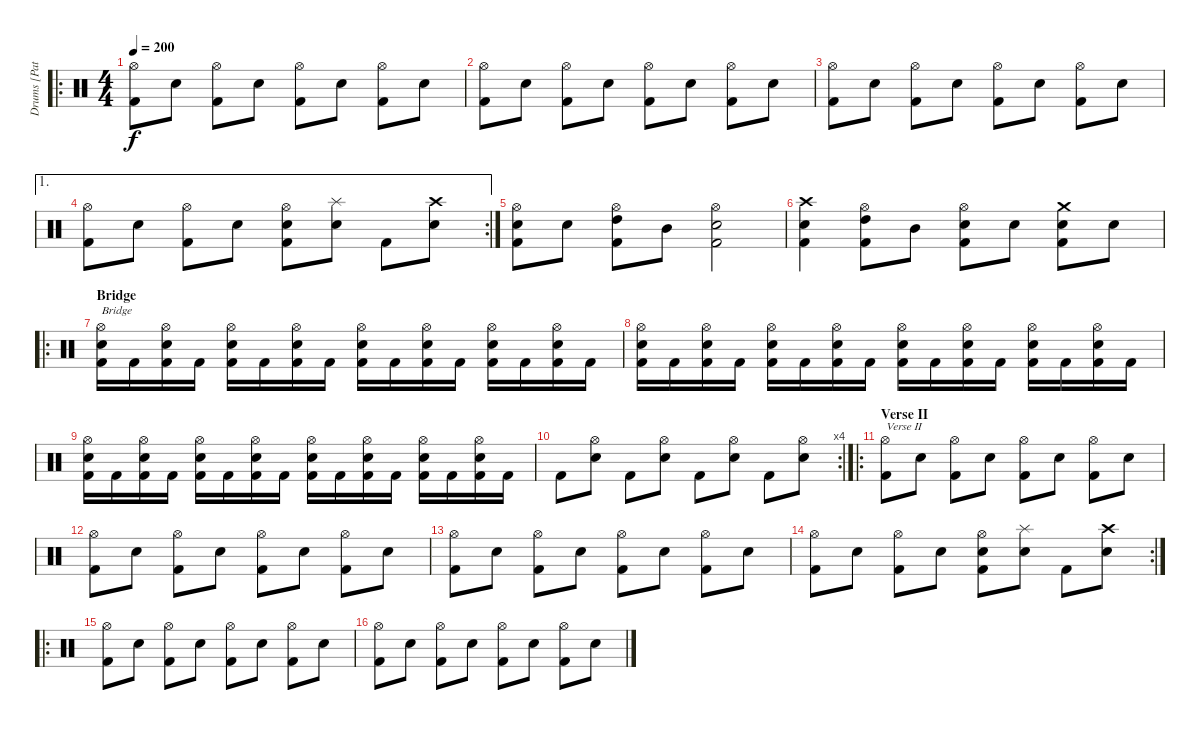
\track ("Drums [Patrick Robert]" "Drums [Pat") {instrument percussion}
\staff {score}
\articulation defaults
\ro
\ts (4 4)
\tempo 200
\clef neutral
\ks c
("Hi-Hat (open)" "Kick (hit) 2").8{dy f} "Electric Snare (hit)".8 ("Hi-Hat (open)" "Kick (hit) 2").8 "Electric Snare (hit)".8 ("Hi-Hat (open)" "Kick (hit) 2").8 "Electric Snare (hit)".8 ("Hi-Hat (open)" "Kick (hit) 2").8 "Electric Snare (hit)".8 |
("Hi-Hat (open)" "Kick (hit) 2").8 "Electric Snare (hit)".8 ("Hi-Hat (open)" "Kick (hit) 2").8 "Electric Snare (hit)".8 ("Hi-Hat (open)" "Kick (hit) 2").8 "Electric Snare (hit)".8 ("Hi-Hat (open)" "Kick (hit) 2").8 "Electric Snare (hit)".8 |
("Hi-Hat (open)" "Kick (hit) 2").8 "Electric Snare (hit)".8 ("Hi-Hat (open)" "Kick (hit) 2").8 "Electric Snare (hit)".8 ("Hi-Hat (open)" "Kick (hit) 2").8 "Electric Snare (hit)".8 ("Hi-Hat (open)" "Kick (hit) 2").8 "Electric Snare (hit)".8 |
\ae 1
\rc 2
("Hi-Hat (open)" "Kick (hit) 2").8 "Electric Snare (hit)".8 ("Hi-Hat (open)" "Kick (hit) 2").8 "Electric Snare (hit)".8 ("Hi-Hat (open)" "Electric Snare (hit)" "Kick (hit) 2").8 ("Splash (hit)" "Electric Snare (hit)").8 "Kick (hit) 2".8 ("Crash high (hit)" "Electric Snare (hit)").8 |
("Hi-Hat (open)" "Electric Snare (hit)" "Kick (hit) 2").8 "Electric Snare (hit)".8 ("Hi-Hat (open)" "High Tom (hit)" "Kick (hit) 2").8 "Mid Tom (hit)".8 ("Hi-Hat (open)" "Electric Snare (hit)" "Kick (hit) 2").2 |
("Crash high (hit)" "Electric Snare (hit)" "Kick (hit) 2").4 ("Hi-Hat (open)" "High Tom (hit)" "Kick (hit) 2").8 "Mid Tom (hit)".8 ("Hi-Hat (open)" "Electric Snare (hit)" "Kick (hit) 2").8 "Electric Snare (hit)".8 ("Crash medium (hit)" "Electric Snare (hit)" "Kick (hit) 2").8 "Electric Snare (hit)".8 |
\ro
\section ("" "Bridge")
("Hi-Hat (open)" "Electric Snare (hit)" "Kick (hit) 2").16{txt "Bridge"} "Kick (hit) 2".16 ("Hi-Hat (open)" "Electric Snare (hit)" "Kick (hit) 2").16 "Kick (hit) 2".16 ("Hi-Hat (open)" "Electric Snare (hit)" "Kick (hit) 2").16 "Kick (hit) 2".16 ("Hi-Hat (open)" "Electric Snare (hit)" "Kick (hit) 2").16 "Kick (hit) 2".16 ("Hi-Hat (open)" "Electric Snare (hit)" "Kick (hit) 2").16 "Kick (hit) 2".16 ("Hi-Hat (open)" "Electric Snare (hit)" "Kick (hit) 2").16 "Kick (hit) 2".16 ("Hi-Hat (open)" "Electric Snare (hit)" "Kick (hit) 2").16 "Kick (hit) 2".16 ("Hi-Hat (open)" "Electric Snare (hit)" "Kick (hit) 2").16 "Kick (hit) 2".16 |
("Hi-Hat (open)" "Electric Snare (hit)" "Kick (hit) 2").16 "Kick (hit) 2".16 ("Hi-Hat (open)" "Electric Snare (hit)" "Kick (hit) 2").16 "Kick (hit) 2".16 ("Hi-Hat (open)" "Electric Snare (hit)" "Kick (hit) 2").16 "Kick (hit) 2".16 ("Hi-Hat (open)" "Electric Snare (hit)" "Kick (hit) 2").16 "Kick (hit) 2".16 ("Hi-Hat (open)" "Electric Snare (hit)" "Kick (hit) 2").16 "Kick (hit) 2".16 ("Hi-Hat (open)" "Electric Snare (hit)" "Kick (hit) 2").16 "Kick (hit) 2".16 ("Hi-Hat (open)" "Electric Snare (hit)" "Kick (hit) 2").16 "Kick (hit) 2".16 ("Hi-Hat (open)" "Electric Snare (hit)" "Kick (hit) 2").16 "Kick (hit) 2".16 |
("Hi-Hat (open)" "Electric Snare (hit)" "Kick (hit) 2").16 "Kick (hit) 2".16 ("Hi-Hat (open)" "Electric Snare (hit)" "Kick (hit) 2").16 "Kick (hit) 2".16 ("Hi-Hat (open)" "Electric Snare (hit)" "Kick (hit) 2").16 "Kick (hit) 2".16 ("Hi-Hat (open)" "Electric Snare (hit)" "Kick (hit) 2").16 "Kick (hit) 2".16 ("Hi-Hat (open)" "Electric Snare (hit)" "Kick (hit) 2").16 "Kick (hit) 2".16 ("Hi-Hat (open)" "Electric Snare (hit)" "Kick (hit) 2").16 "Kick (hit) 2".16 ("Hi-Hat (open)" "Electric Snare (hit)" "Kick (hit) 2").16 "Kick (hit) 2".16 ("Hi-Hat (open)" "Electric Snare (hit)" "Kick (hit) 2").16 "Kick (hit) 2".16 |
\rc 4 "Kick (hit) 2".8
("Hi-Hat (open)" "Electric Snare (hit)").8 "Kick (hit) 2".8 ("Hi-Hat (open)" "Electric Snare (hit)").8 "Kick (hit) 2".8 ("Hi-Hat (open)" "Electric Snare (hit)").8 "Kick (hit) 2".8 ("Hi-Hat (open)" "Electric Snare (hit)").8 |
\ro
\section ("" "Verse II")
("Hi-Hat (open)" "Kick (hit) 2").8{txt "Verse II"} "Electric Snare (hit)".8 ("Hi-Hat (open)" "Kick (hit) 2").8 "Electric Snare (hit)".8 ("Hi-Hat (open)" "Kick (hit) 2").8 "Electric Snare (hit)".8 ("Hi-Hat (open)" "Kick (hit) 2").8 "Electric Snare (hit)".8 |
("Hi-Hat (open)" "Kick (hit) 2").8 "Electric Snare (hit)".8 ("Hi-Hat (open)" "Kick (hit) 2").8 "Electric Snare (hit)".8 ("Hi-Hat (open)" "Kick (hit) 2").8 "Electric Snare (hit)".8 ("Hi-Hat (open)" "Kick (hit) 2").8 "Electric Snare (hit)".8 |
("Hi-Hat (open)" "Kick (hit) 2").8 "Electric Snare (hit)".8 ("Hi-Hat (open)" "Kick (hit) 2").8 "Electric Snare (hit)".8 ("Hi-Hat (open)" "Kick (hit) 2").8 "Electric Snare (hit)".8 ("Hi-Hat (open)" "Kick (hit) 2").8 "Electric Snare (hit)".8 |
\rc 2
("Hi-Hat (open)" "Kick (hit) 2").8 "Electric Snare (hit)".8 ("Hi-Hat (open)" "Kick (hit) 2").8 "Electric Snare (hit)".8 ("Hi-Hat (open)" "Electric Snare (hit)" "Kick (hit) 2").8 ("Splash (hit)" "Electric Snare (hit)").8 "Kick (hit) 2".8 ("Crash high (hit)" "Electric Snare (hit)").8 |
\ro
("Hi-Hat (open)" "Kick (hit) 2").8 "Electric Snare (hit)".8 ("Hi-Hat (open)" "Kick (hit) 2").8 "Electric Snare (hit)".8 ("Hi-Hat (open)" "Kick (hit) 2").8 "Electric Snare (hit)".8 ("Hi-Hat (open)" "Kick (hit) 2").8 "Electric Snare (hit)".8 |
("Hi-Hat (open)" "Kick (hit) 2").8 "Electric Snare (hit)".8 ("Hi-Hat (open)" "Kick (hit) 2").8 "Electric Snare (hit)".8 ("Hi-Hat (open)" "Kick (hit) 2").8 "Electric Snare (hit)".8 ("Hi-Hat (open)" "Kick (hit) 2").8 "Electric Snare (hit)".8
